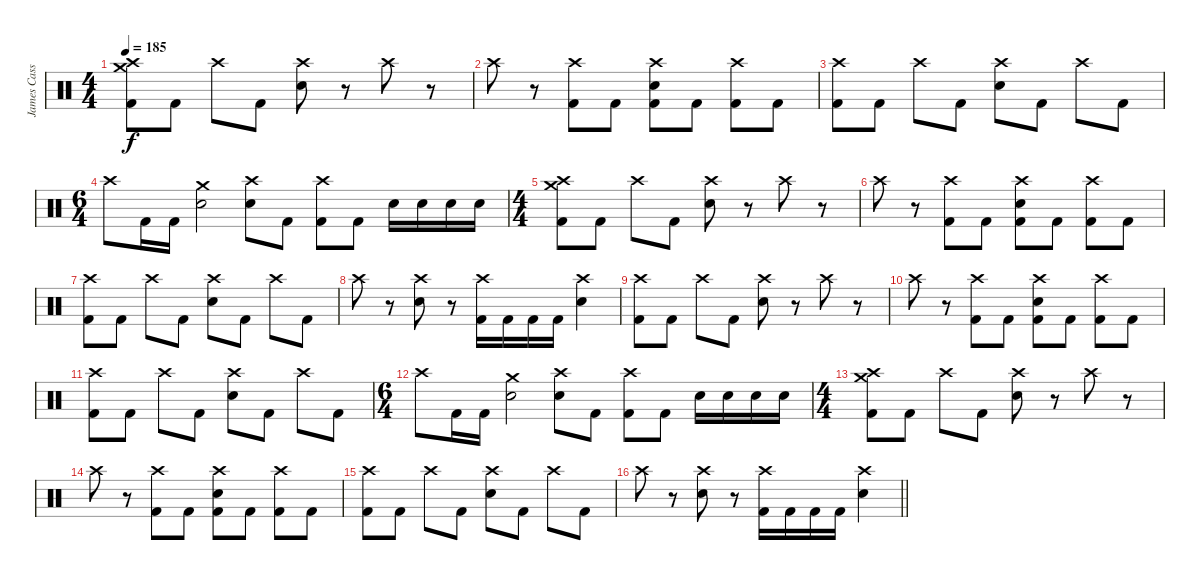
\track ("James Cassells (Drums)" "James Cass") {instrument percussion}
\staff {score}
\articulation defaults
\ts (4 4)
\tempo 185
\clef neutral
\ks c
("Crash high (hit)" "Crash medium (hit)" "Kick (hit) 2").8{dy f} "Kick (hit) 2".8 "Crash high (hit)".8 "Kick (hit) 2".8 ("Crash high (hit)" "Snare (hit) 2").8 r.8 "Crash high (hit)".8 r.8 |
"Crash high (hit)".8 r.8 ("Crash high (hit)" "Kick (hit) 2").8 "Kick (hit) 2".8 ("Crash high (hit)" "Snare (hit) 2" "Kick (hit) 2").8 "Kick (hit) 2".8 ("Crash high (hit)" "Kick (hit) 2").8 "Kick (hit) 2".8 |
("Crash high (hit)" "Kick (hit) 2").8 "Kick (hit) 2".8 "Crash high (hit)".8 "Kick (hit) 2".8 ("Crash high (hit)" "Snare (hit) 2").8 "Kick (hit) 2".8 "Crash high (hit)".8 "Kick (hit) 2".8 |
\ts (6 4)
"Crash high (hit)".8 "Kick (hit) 2".16 "Kick (hit) 2".16 ("Crash medium (hit)" "Snare (hit) 2").2 ("Crash high (hit)" "Snare (hit) 2").8 "Kick (hit) 2".8 ("Crash high (hit)" "Kick (hit) 2").8 "Kick (hit) 2".8 "Snare (hit) 2".16 "Snare (hit) 2".16 "Snare (hit) 2".16 "Snare (hit) 2".16 |
\ts (4 4)
("Crash high (hit)" "Crash medium (hit)" "Kick (hit) 2").8 "Kick (hit) 2".8 "Crash high (hit)".8 "Kick (hit) 2".8 ("Crash high (hit)" "Snare (hit) 2").8 r.8 "Crash high (hit)".8 r.8 |
"Crash high (hit)".8 r.8 ("Crash high (hit)" "Kick (hit) 2").8 "Kick (hit) 2".8 ("Crash high (hit)" "Snare (hit) 2" "Kick (hit) 2").8 "Kick (hit) 2".8 ("Crash high (hit)" "Kick (hit) 2").8 "Kick (hit) 2".8 |
("Crash high (hit)" "Kick (hit) 2").8 "Kick (hit) 2".8 "Crash high (hit)".8 "Kick (hit) 2".8 ("Crash high (hit)" "Snare (hit) 2").8 "Kick (hit) 2".8 "Crash high (hit)".8 "Kick (hit) 2".8 |
"Crash high (hit)".8 r.8 ("Crash high (hit)" "Snare (hit) 2").8 r.8 ("Crash high (hit)" "Kick (hit) 2").16 "Kick (hit) 2".16 "Kick (hit) 2".16 "Kick (hit) 2".16 ("Crash high (hit)" "Snare (hit) 2").4 |
("Crash high (hit)" "Kick (hit) 2").8 "Kick (hit) 2".8 "Crash high (hit)".8 "Kick (hit) 2".8 ("Crash high (hit)" "Snare (hit) 2").8 r.8 "Crash high (hit)".8 r.8 |
"Crash high (hit)".8 r.8 ("Crash high (hit)" "Kick (hit) 2").8 "Kick (hit) 2".8 ("Crash high (hit)" "Snare (hit) 2" "Kick (hit) 2").8 "Kick (hit) 2".8 ("Crash high (hit)" "Kick (hit) 2").8 "Kick (hit) 2".8 |
("Crash high (hit)" "Kick (hit) 2").8 "Kick (hit) 2".8 "Crash high (hit)".8 "Kick (hit) 2".8 ("Crash high (hit)" "Snare (hit) 2").8 "Kick (hit) 2".8 "Crash high (hit)".8 "Kick (hit) 2".8 |
\ts (6 4)
"Crash high (hit)".8 "Kick (hit) 2".16 "Kick (hit) 2".16 ("Crash medium (hit)" "Snare (hit) 2").2 ("Crash high (hit)" "Snare (hit) 2").8 "Kick (hit) 2".8 ("Crash high (hit)" "Kick (hit) 2").8 "Kick (hit) 2".8 "Snare (hit) 2".16 "Snare (hit) 2".16 "Snare (hit) 2".16 "Snare (hit) 2".16 |
\ts (4 4)
("Crash high (hit)" "Crash medium (hit)" "Kick (hit) 2").8 "Kick (hit) 2".8 "Crash high (hit)".8 "Kick (hit) 2".8 ("Crash high (hit)" "Snare (hit) 2").8 r.8 "Crash high (hit)".8 r.8 |
"Crash high (hit)".8 r.8 ("Crash high (hit)" "Kick (hit) 2").8 "Kick (hit) 2".8 ("Crash high (hit)" "Snare (hit) 2" "Kick (hit) 2").8 "Kick (hit) 2".8 ("Crash high (hit)" "Kick (hit) 2").8 "Kick (hit) 2".8 |
("Crash high (hit)" "Kick (hit) 2").8 "Kick (hit) 2".8 "Crash high (hit)".8 "Kick (hit) 2".8 ("Crash high (hit)" "Snare (hit) 2").8 "Kick (hit) 2".8 "Crash high (hit)".8 "Kick (hit) 2".8 |
\barLineRight lightlight "Crash high (hit)".8
r.8 ("Crash high (hit)" "Snare (hit) 2").8 r.8 ("Crash high (hit)" "Kick (hit) 2").16 "Kick (hit) 2".16 "Kick (hit) 2".16 "Kick (hit) 2".16 ("Crash high (hit)" "Snare (hit) 2").4
